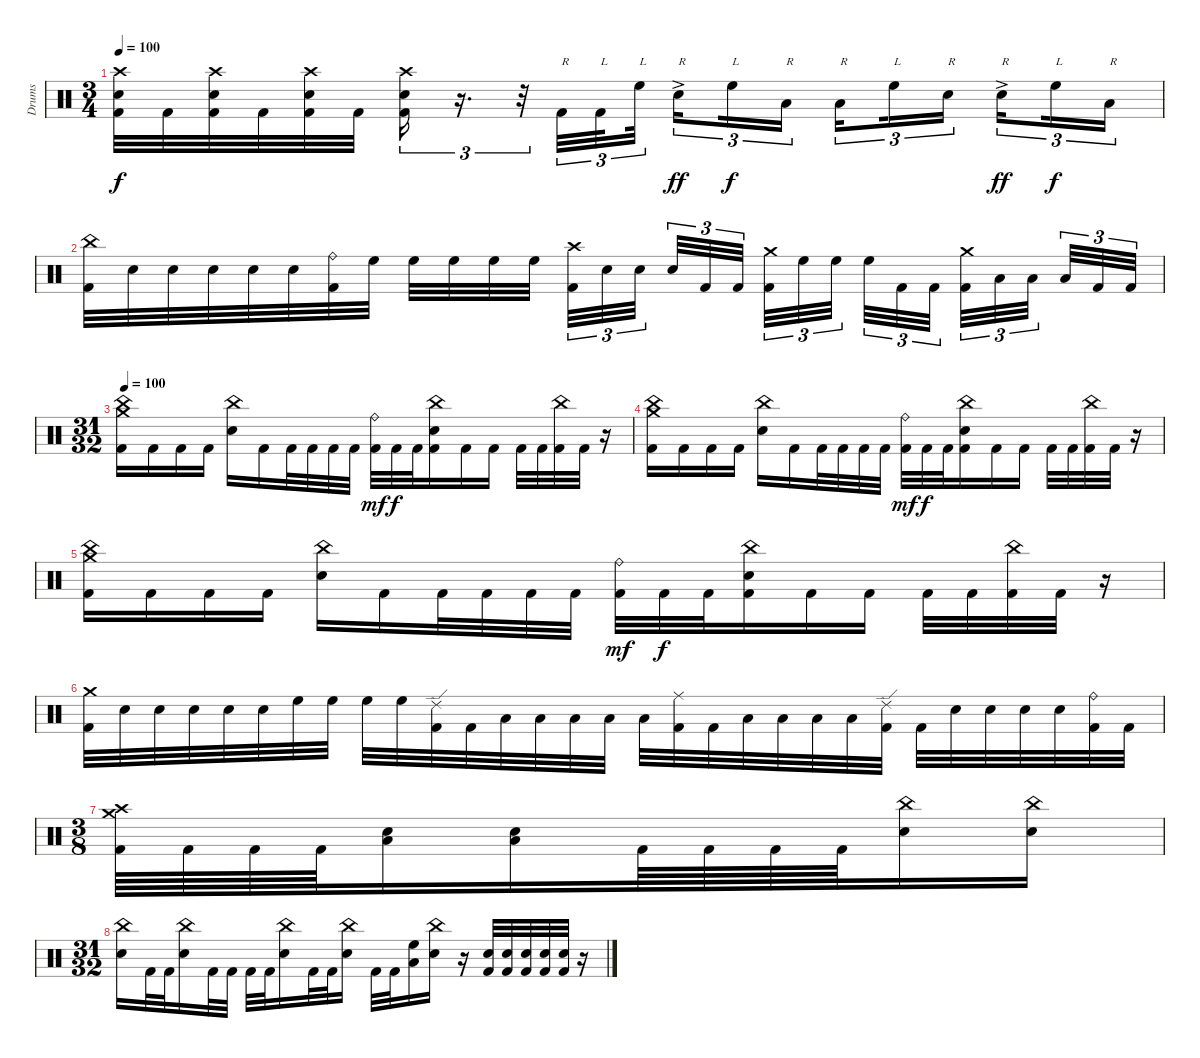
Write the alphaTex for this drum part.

\track ("Drums" "Drums") {instrument percussion}
\staff {score}
\articulation defaults
\ts (3 4)
\tempo 100
\clef neutral
\ks c
("Crash high (hit)" "Electric Snare (hit)" "Kick (hit) 2").32{dy f} "Kick (hit) 2".32 ("Crash high (hit)" "Electric Snare (hit)" "Kick (hit) 2").32 "Kick (hit) 2".32 ("Crash high (hit)" "Electric Snare (hit)" "Kick (hit) 2").32 "Kick (hit) 2".32{beam splitsecondary} ("Crash high (hit)" "Electric Snare (hit)" "Kick (hit) 2").16{tu (3 2)} r.16{d tu (3 2)} r.32{tu (3 2)} "Kick (hit) 2".32{tu (3 2) txt "R"} "Kick (hit) 2".32{tu (3 2) txt "L" beam splitsecondary} "High Floor Tom (hit)".32{tu (3 2) txt "L"} "Electric Snare (hit)"{ac}.16{tu (3 2) txt "R" dy ff beam splitsecondary} "High Floor Tom (hit)".16{tu (3 2) txt "L" dy f} "Low Tom (hit)".16{tu (3 2) txt "R"} "Low Tom (hit)".16{tu (3 2) txt "R" beam splitsecondary} "High Floor Tom (hit)".16{tu (3 2) txt "L"} "Electric Snare (hit)".16{tu (3 2) txt "R"} "Electric Snare (hit)"{ac}.16{tu (3 2) txt "R" dy ff beam splitsecondary} "High Floor Tom (hit)".16{tu (3 2) txt "L" dy f} "Low Tom (hit)".16{tu (3 2) txt "R"} |
("China (hit)" "Kick (hit) 2").32 "Electric Snare (hit)".32 "Electric Snare (hit)".32 "Electric Snare (hit)".32 "Electric Snare (hit)".32 "Electric Snare (hit)".32 ("Ride (bell)" "Kick (hit) 2").32 "High Floor Tom (hit)".32 "High Floor Tom (hit)".32 "High Floor Tom (hit)".32 "High Floor Tom (hit)".32 "High Floor Tom (hit)".32{beam splitsecondary} ("Crash high (hit)" "Kick (hit) 2").32{tu (3 2)} "Electric Snare (hit)".32{tu (3 2)} "Electric Snare (hit)".32{tu (3 2) beam splitsecondary} "Electric Snare (hit)".32{tu (3 2)} "Kick (hit) 2".32{tu (3 2)} "Kick (hit) 2".32{tu (3 2)} ("Crash medium (hit)" "Kick (hit) 2").32{tu (3 2)} "High Floor Tom (hit)".32{tu (3 2)} "High Floor Tom (hit)".32{tu (3 2) beam splitsecondary} "High Floor Tom (hit)".32{tu (3 2)} "Kick (hit) 2".32{tu (3 2)} "Kick (hit) 2".32{tu (3 2) beam splitsecondary} ("Crash medium (hit)" "Kick (hit) 2").32{tu (3 2)} "Low Tom (hit)".32{tu (3 2)} "Low Tom (hit)".32{tu (3 2) beam splitsecondary} "Low Tom (hit)".32{tu (3 2)} "Kick (hit) 2".32{tu (3 2)} "Kick (hit) 2".32{tu (3 2)} |
\ts (31 32)
\tempo 100
("China (hit)" "Crash medium (hit)" "Kick (hit) 2").16 "Kick (hit) 2".16 "Kick (hit) 2".16 "Kick (hit) 2".16 ("Electric Snare (hit)" "China (hit)").16 "Kick (hit) 2".16 "Kick (hit) 2".32 "Kick (hit) 2".32 "Kick (hit) 2".32 "Kick (hit) 2".32 ("Kick (hit) 2" "Ride (bell)").32{dy mf} "Kick (hit) 2".32{dy f} "Kick (hit) 2".32 ("Kick (hit) 2" "China (hit)" "Electric Snare (hit)").16 "Kick (hit) 2".16 "Kick (hit) 2".16 "Kick (hit) 2".32 "Kick (hit) 2".32 ("Kick (hit) 2" "China (hit)").32 "Kick (hit) 2".32 r.16 |
("China (hit)" "Crash medium (hit)" "Kick (hit) 2").16 "Kick (hit) 2".16 "Kick (hit) 2".16 "Kick (hit) 2".16 ("Electric Snare (hit)" "China (hit)").16 "Kick (hit) 2".16 "Kick (hit) 2".32 "Kick (hit) 2".32 "Kick (hit) 2".32 "Kick (hit) 2".32 ("Kick (hit) 2" "Ride (bell)").32{dy mf} "Kick (hit) 2".32{dy f} "Kick (hit) 2".32 ("Kick (hit) 2" "China (hit)" "Electric Snare (hit)").16 "Kick (hit) 2".16 "Kick (hit) 2".16 "Kick (hit) 2".32 "Kick (hit) 2".32 ("Kick (hit) 2" "China (hit)").32 "Kick (hit) 2".32 r.16 |
("China (hit)" "Crash medium (hit)" "Kick (hit) 2").16 "Kick (hit) 2".16 "Kick (hit) 2".16 "Kick (hit) 2".16 ("Electric Snare (hit)" "China (hit)").16 "Kick (hit) 2".16 "Kick (hit) 2".32 "Kick (hit) 2".32 "Kick (hit) 2".32 "Kick (hit) 2".32 ("Kick (hit) 2" "Ride (bell)").32{dy mf} "Kick (hit) 2".32{dy f} "Kick (hit) 2".32 ("Kick (hit) 2" "China (hit)" "Electric Snare (hit)").16 "Kick (hit) 2".16 "Kick (hit) 2".16 "Kick (hit) 2".32 "Kick (hit) 2".32 ("Kick (hit) 2" "China (hit)").32 "Kick (hit) 2".32 r.16 |
("Crash medium (hit)" "Kick (hit) 2").32 "Electric Snare (hit)".32 "Electric Snare (hit)".32 "Electric Snare (hit)".32 "Electric Snare (hit)".32 "Electric Snare (hit)".32 "High Floor Tom (hit)".32 "High Floor Tom (hit)".32 "High Floor Tom (hit)".32 "High Floor Tom (hit)".32 ("Kick (hit) 2" "Ride (edge) 2").32 "Kick (hit) 2".32 "Low Tom (hit)".32 "Low Tom (hit)".32 "Low Tom (hit)".32 "Low Tom (hit)".32 "Low Tom (hit)".32 ("Kick (hit) 2" "Ride (middle)").32 "Kick (hit) 2".32 "Low Tom (hit)".32 "Low Tom (hit)".32 "Low Tom (hit)".32 "Low Tom (hit)".32 ("Kick (hit) 2" "Ride (edge) 2").32 "Kick (hit) 2".32 "Electric Snare (hit)".32 "Electric Snare (hit)".32 "Electric Snare (hit)".32 "Electric Snare (hit)".32 ("Kick (hit) 2" "Ride (bell)").32 "Kick (hit) 2".32 |
\ts (3 8)
("Kick (hit) 2" "Crash high (hit)" "Crash medium (hit)").64 "Kick (hit) 2".64 "Kick (hit) 2".64 "Kick (hit) 2".64 ("Low Tom (hit)" "Electric Snare (hit)").16 ("Low Tom (hit)" "Electric Snare (hit)").16 "Kick (hit) 2".64 "Kick (hit) 2".64 "Kick (hit) 2".64 "Kick (hit) 2".64 ("Electric Snare (hit)" "China (hit)").16 ("Electric Snare (hit)" "China (hit)").16 |
\ts (31 32)
("China (hit)" "Electric Snare (hit)").16 "Kick (hit) 2".32 "Kick (hit) 2".32 ("Electric Snare (hit)" "China (hit)").16 "Kick (hit) 2".32 "Kick (hit) 2".32 "Kick (hit) 2".32 "Kick (hit) 2".32 ("China (hit)" "Electric Snare (hit)").16 "Kick (hit) 2".32 "Kick (hit) 2".32 ("Electric Snare (hit)" "China (hit)").16 "Kick (hit) 2".32 "Kick (hit) 2".32 ("Low Tom (hit)" "High Floor Tom (hit)").16 ("Electric Snare (hit)" "China (hit)").16 r.16 ("Electric Snare (hit)" "Kick (hit) 2").32 ("Electric Snare (hit)" "Kick (hit) 2").32 ("Electric Snare (hit)" "Kick (hit) 2").32 ("Electric Snare (hit)" "Kick (hit) 2").32 ("Electric Snare (hit)" "Kick (hit) 2").32 r.16
